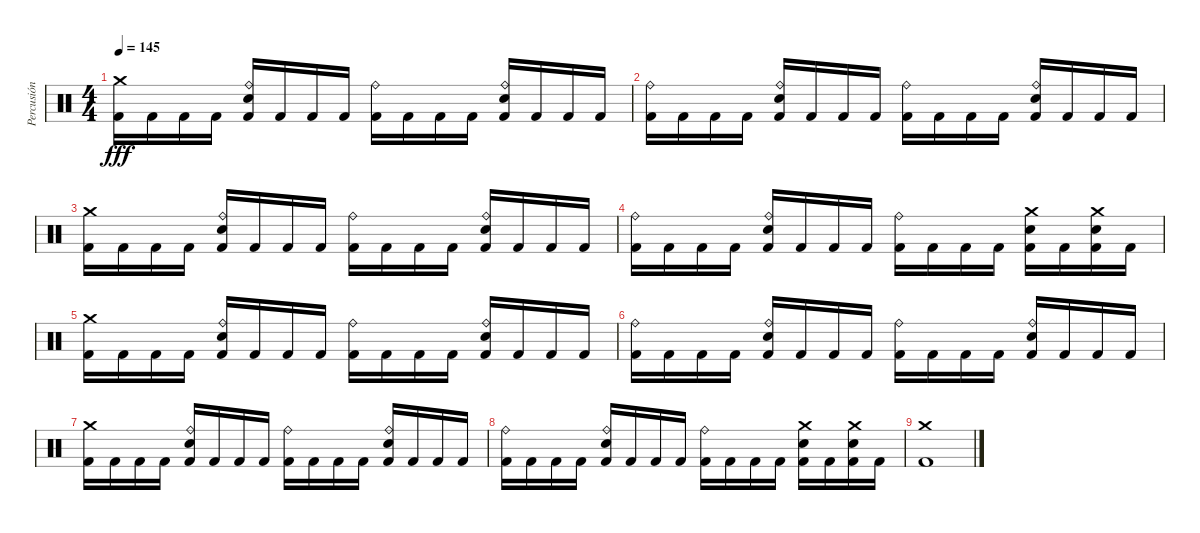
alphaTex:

\track ("Percusión" "Percusión") {instrument percussion}
\staff {score}
\articulation defaults
\ts (4 4)
\tempo 145
\clef neutral
\ks c
("Crash medium (hit)" "Kick (hit) 2").16{dy fff} "Kick (hit) 2".16 "Kick (hit) 2".16 "Kick (hit) 2".16 ("Ride (bell)" "Snare (hit) 2" "Kick (hit) 2").16 "Kick (hit) 2".16 "Kick (hit) 2".16 "Kick (hit) 2".16 ("Ride (bell)" "Kick (hit) 2").16 "Kick (hit) 2".16 "Kick (hit) 2".16 "Kick (hit) 2".16 ("Ride (bell)" "Snare (hit) 2" "Kick (hit) 2").16 "Kick (hit) 2".16 "Kick (hit) 2".16 "Kick (hit) 2".16 |
("Ride (bell)" "Kick (hit) 2").16 "Kick (hit) 2".16 "Kick (hit) 2".16 "Kick (hit) 2".16 ("Ride (bell)" "Snare (hit) 2" "Kick (hit) 2").16 "Kick (hit) 2".16 "Kick (hit) 2".16 "Kick (hit) 2".16 ("Ride (bell)" "Kick (hit) 2").16 "Kick (hit) 2".16 "Kick (hit) 2".16 "Kick (hit) 2".16 ("Ride (bell)" "Snare (hit) 2" "Kick (hit) 2").16 "Kick (hit) 2".16 "Kick (hit) 2".16 "Kick (hit) 2".16 |
("Crash medium (hit)" "Kick (hit) 2").16 "Kick (hit) 2".16 "Kick (hit) 2".16 "Kick (hit) 2".16 ("Ride (bell)" "Snare (hit) 2" "Kick (hit) 2").16 "Kick (hit) 2".16 "Kick (hit) 2".16 "Kick (hit) 2".16 ("Ride (bell)" "Kick (hit) 2").16 "Kick (hit) 2".16 "Kick (hit) 2".16 "Kick (hit) 2".16 ("Ride (bell)" "Snare (hit) 2" "Kick (hit) 2").16 "Kick (hit) 2".16 "Kick (hit) 2".16 "Kick (hit) 2".16 |
("Ride (bell)" "Kick (hit) 2").16 "Kick (hit) 2".16 "Kick (hit) 2".16 "Kick (hit) 2".16 ("Ride (bell)" "Snare (hit) 2" "Kick (hit) 2").16 "Kick (hit) 2".16 "Kick (hit) 2".16 "Kick (hit) 2".16 ("Ride (bell)" "Kick (hit) 2").16 "Kick (hit) 2".16 "Kick (hit) 2".16 "Kick (hit) 2".16 ("Crash medium (hit)" "Snare (hit) 2" "Kick (hit) 2").16 "Kick (hit) 2".16 ("Crash medium (hit)" "Snare (hit) 2" "Kick (hit) 2").16 "Kick (hit) 2".16 |
("Crash medium (hit)" "Kick (hit) 2").16 "Kick (hit) 2".16 "Kick (hit) 2".16 "Kick (hit) 2".16 ("Ride (bell)" "Snare (hit) 2" "Kick (hit) 2").16 "Kick (hit) 2".16 "Kick (hit) 2".16 "Kick (hit) 2".16 ("Ride (bell)" "Kick (hit) 2").16 "Kick (hit) 2".16 "Kick (hit) 2".16 "Kick (hit) 2".16 ("Ride (bell)" "Snare (hit) 2" "Kick (hit) 2").16 "Kick (hit) 2".16 "Kick (hit) 2".16 "Kick (hit) 2".16 |
("Ride (bell)" "Kick (hit) 2").16 "Kick (hit) 2".16 "Kick (hit) 2".16 "Kick (hit) 2".16 ("Ride (bell)" "Snare (hit) 2" "Kick (hit) 2").16 "Kick (hit) 2".16 "Kick (hit) 2".16 "Kick (hit) 2".16 ("Ride (bell)" "Kick (hit) 2").16 "Kick (hit) 2".16 "Kick (hit) 2".16 "Kick (hit) 2".16 ("Ride (bell)" "Snare (hit) 2" "Kick (hit) 2").16 "Kick (hit) 2".16 "Kick (hit) 2".16 "Kick (hit) 2".16 |
("Crash medium (hit)" "Kick (hit) 2").16 "Kick (hit) 2".16 "Kick (hit) 2".16 "Kick (hit) 2".16 ("Ride (bell)" "Snare (hit) 2" "Kick (hit) 2").16 "Kick (hit) 2".16 "Kick (hit) 2".16 "Kick (hit) 2".16 ("Ride (bell)" "Kick (hit) 2").16 "Kick (hit) 2".16 "Kick (hit) 2".16 "Kick (hit) 2".16 ("Ride (bell)" "Snare (hit) 2" "Kick (hit) 2").16 "Kick (hit) 2".16 "Kick (hit) 2".16 "Kick (hit) 2".16 |
("Ride (bell)" "Kick (hit) 2").16 "Kick (hit) 2".16 "Kick (hit) 2".16 "Kick (hit) 2".16 ("Ride (bell)" "Snare (hit) 2" "Kick (hit) 2").16 "Kick (hit) 2".16 "Kick (hit) 2".16 "Kick (hit) 2".16 ("Ride (bell)" "Kick (hit) 2").16 "Kick (hit) 2".16 "Kick (hit) 2".16 "Kick (hit) 2".16 ("Crash medium (hit)" "Snare (hit) 2" "Kick (hit) 2").16 "Kick (hit) 2".16 ("Crash medium (hit)" "Snare (hit) 2" "Kick (hit) 2").16 "Kick (hit) 2".16 |
("Crash medium (hit)" "Kick (hit) 2").1
